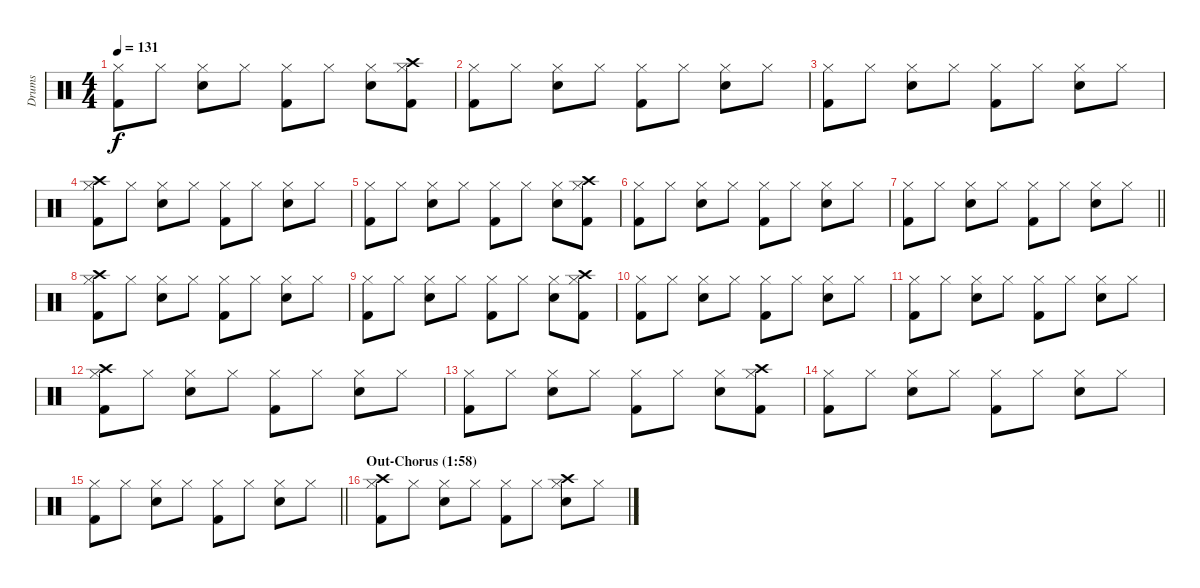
\track ("Drums" "Drums") {instrument percussion}
\staff {score}
\articulation defaults
\ts (4 4)
\tempo 131
\clef neutral
\ks c
("Kick (hit) 2" "Hi-Hat (closed)").8{dy f} "Hi-Hat (closed)".8 ("Hi-Hat (closed)" "Snare (hit) 2").8 "Hi-Hat (closed)".8 ("Hi-Hat (closed)" "Kick (hit) 2").8 "Hi-Hat (closed)".8 ("Hi-Hat (closed)" "Snare (hit) 2").8 ("Hi-Hat (closed)" "Kick (hit) 2" "Crash high (hit)").8 |
("Kick (hit) 2" "Hi-Hat (closed)").8 "Hi-Hat (closed)".8 ("Hi-Hat (closed)" "Snare (hit) 2").8 "Hi-Hat (closed)".8 ("Hi-Hat (closed)" "Kick (hit) 2").8 "Hi-Hat (closed)".8 ("Hi-Hat (closed)" "Snare (hit) 2").8 "Hi-Hat (closed)".8 |
("Kick (hit) 2" "Hi-Hat (closed)").8 "Hi-Hat (closed)".8 ("Hi-Hat (closed)" "Snare (hit) 2").8 "Hi-Hat (closed)".8 ("Hi-Hat (closed)" "Kick (hit) 2").8 "Hi-Hat (closed)".8 ("Hi-Hat (closed)" "Snare (hit) 2").8 "Hi-Hat (closed)".8 |
("Kick (hit) 2" "Hi-Hat (closed)" "Crash high (hit)").8 "Hi-Hat (closed)".8 ("Hi-Hat (closed)" "Snare (hit) 2").8 "Hi-Hat (closed)".8 ("Hi-Hat (closed)" "Kick (hit) 2").8 "Hi-Hat (closed)".8 ("Hi-Hat (closed)" "Snare (hit) 2").8 "Hi-Hat (closed)".8 |
("Kick (hit) 2" "Hi-Hat (closed)").8 "Hi-Hat (closed)".8 ("Hi-Hat (closed)" "Snare (hit) 2").8 "Hi-Hat (closed)".8 ("Hi-Hat (closed)" "Kick (hit) 2").8 "Hi-Hat (closed)".8 ("Hi-Hat (closed)" "Snare (hit) 2").8 ("Hi-Hat (closed)" "Kick (hit) 2" "Crash high (hit)").8 |
("Kick (hit) 2" "Hi-Hat (closed)").8 "Hi-Hat (closed)".8 ("Hi-Hat (closed)" "Snare (hit) 2").8 "Hi-Hat (closed)".8 ("Hi-Hat (closed)" "Kick (hit) 2").8 "Hi-Hat (closed)".8 ("Hi-Hat (closed)" "Snare (hit) 2").8 "Hi-Hat (closed)".8 |
\barLineRight lightlight
("Kick (hit) 2" "Hi-Hat (closed)").8 "Hi-Hat (closed)".8 ("Hi-Hat (closed)" "Snare (hit) 2").8 "Hi-Hat (closed)".8 ("Hi-Hat (closed)" "Kick (hit) 2").8 "Hi-Hat (closed)".8 ("Hi-Hat (closed)" "Snare (hit) 2").8 "Hi-Hat (closed)".8 |
("Kick (hit) 2" "Hi-Hat (closed)" "Crash high (hit)").8 "Hi-Hat (closed)".8 ("Hi-Hat (closed)" "Snare (hit) 2").8 "Hi-Hat (closed)".8 ("Hi-Hat (closed)" "Kick (hit) 2").8 "Hi-Hat (closed)".8 ("Hi-Hat (closed)" "Snare (hit) 2").8 "Hi-Hat (closed)".8 |
("Kick (hit) 2" "Hi-Hat (closed)").8 "Hi-Hat (closed)".8 ("Hi-Hat (closed)" "Snare (hit) 2").8 "Hi-Hat (closed)".8 ("Hi-Hat (closed)" "Kick (hit) 2").8 "Hi-Hat (closed)".8 ("Hi-Hat (closed)" "Snare (hit) 2").8 ("Hi-Hat (closed)" "Kick (hit) 2" "Crash high (hit)").8 |
("Kick (hit) 2" "Hi-Hat (closed)").8 "Hi-Hat (closed)".8 ("Hi-Hat (closed)" "Snare (hit) 2").8 "Hi-Hat (closed)".8 ("Hi-Hat (closed)" "Kick (hit) 2").8 "Hi-Hat (closed)".8 ("Hi-Hat (closed)" "Snare (hit) 2").8 "Hi-Hat (closed)".8 |
("Kick (hit) 2" "Hi-Hat (closed)").8 "Hi-Hat (closed)".8 ("Hi-Hat (closed)" "Snare (hit) 2").8 "Hi-Hat (closed)".8 ("Hi-Hat (closed)" "Kick (hit) 2").8 "Hi-Hat (closed)".8 ("Hi-Hat (closed)" "Snare (hit) 2").8 "Hi-Hat (closed)".8 |
("Kick (hit) 2" "Hi-Hat (closed)" "Crash high (hit)").8 "Hi-Hat (closed)".8 ("Hi-Hat (closed)" "Snare (hit) 2").8 "Hi-Hat (closed)".8 ("Hi-Hat (closed)" "Kick (hit) 2").8 "Hi-Hat (closed)".8 ("Hi-Hat (closed)" "Snare (hit) 2").8 "Hi-Hat (closed)".8 |
("Kick (hit) 2" "Hi-Hat (closed)").8 "Hi-Hat (closed)".8 ("Hi-Hat (closed)" "Snare (hit) 2").8 "Hi-Hat (closed)".8 ("Hi-Hat (closed)" "Kick (hit) 2").8 "Hi-Hat (closed)".8 ("Hi-Hat (closed)" "Snare (hit) 2").8 ("Hi-Hat (closed)" "Kick (hit) 2" "Crash high (hit)").8 |
("Kick (hit) 2" "Hi-Hat (closed)").8 "Hi-Hat (closed)".8 ("Hi-Hat (closed)" "Snare (hit) 2").8 "Hi-Hat (closed)".8 ("Hi-Hat (closed)" "Kick (hit) 2").8 "Hi-Hat (closed)".8 ("Hi-Hat (closed)" "Snare (hit) 2").8 "Hi-Hat (closed)".8 |
\barLineRight lightlight
("Kick (hit) 2" "Hi-Hat (closed)").8 "Hi-Hat (closed)".8 ("Hi-Hat (closed)" "Snare (hit) 2").8 "Hi-Hat (closed)".8 ("Hi-Hat (closed)" "Kick (hit) 2").8 "Hi-Hat (closed)".8 ("Hi-Hat (closed)" "Snare (hit) 2").8 "Hi-Hat (closed)".8 |
\section ("" "Out-Chorus (1:58)")
("Kick (hit) 2" "Hi-Hat (closed)" "Crash high (hit)").8 "Hi-Hat (closed)".8 ("Hi-Hat (closed)" "Snare (hit) 2").8 "Hi-Hat (closed)".8 ("Hi-Hat (closed)" "Kick (hit) 2").8 "Hi-Hat (closed)".8 ("Hi-Hat (closed)" "Snare (hit) 2" "Crash high (hit)").8 "Hi-Hat (closed)".8
